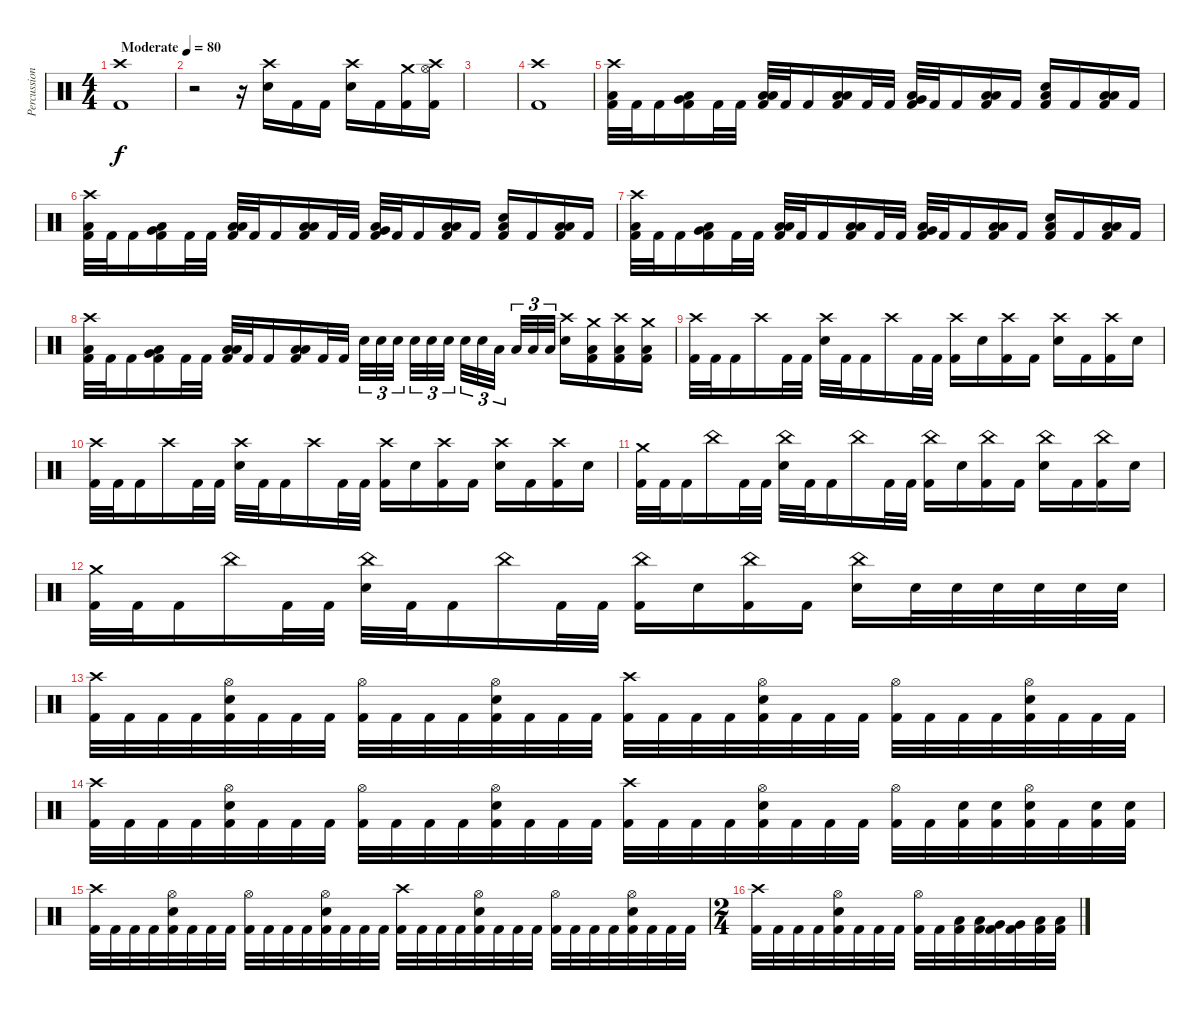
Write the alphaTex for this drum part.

\track ("Percussions" "Percussion") {instrument percussion}
\staff {score}
\articulation defaults
\ts (4 4)
\tempo (80 "Moderate")
\clef neutral
\ks c
("Crash high (hit)" "Kick (hit) 2").1{dy f} |
r.2 r.16 ("Crash high (hit)" "Electric Snare (hit)").16 "Kick (hit) 2".16 "Kick (hit) 2".16 ("Crash high (hit)" "Electric Snare (hit)").16 "Kick (hit) 2".16 ("Crash medium (hit)" "Kick (hit) 2").16 ("Hi-Hat (open)" "Crash high (hit)" "Kick (hit) 2").16 |
|
("Crash high (hit)" "Kick (hit) 2").1 |
("Crash high (hit)" "Low Tom (hit)" "Kick (hit) 2").32 "Kick (hit) 2".32 "Kick (hit) 2".16 ("Very Low Tom (hit)" "Low Floor Tom (hit)" "Kick (hit) 2").16 "Kick (hit) 2".32 "Kick (hit) 2".32 ("Low Floor Tom (hit)" "Low Floor Tom (hit)" "Kick (hit) 2").32 "Kick (hit) 2".32 "Kick (hit) 2".16 ("Low Tom (hit)" "Low Floor Tom (hit)" "Kick (hit) 2").16 "Kick (hit) 2".32 "Kick (hit) 2".32 ("Very Low Tom (hit)" "Low Floor Tom (hit)" "Kick (hit) 2").32 "Kick (hit) 2".32 "Kick (hit) 2".16 ("Low Floor Tom (hit)" "Low Floor Tom (hit)" "Kick (hit) 2").16 "Kick (hit) 2".16 ("Electric Snare (hit)" "Low Floor Tom (hit)" "Kick (hit) 2").16 "Kick (hit) 2".16 ("Low Floor Tom (hit)" "Low Floor Tom (hit)" "Kick (hit) 2").16 "Kick (hit) 2".16 |
("Crash high (hit)" "Low Tom (hit)" "Kick (hit) 2").32 "Kick (hit) 2".32 "Kick (hit) 2".16 ("Very Low Tom (hit)" "Low Floor Tom (hit)" "Kick (hit) 2").16 "Kick (hit) 2".32 "Kick (hit) 2".32 ("Low Floor Tom (hit)" "Low Floor Tom (hit)" "Kick (hit) 2").32 "Kick (hit) 2".32 "Kick (hit) 2".16 ("Low Tom (hit)" "Low Floor Tom (hit)" "Kick (hit) 2").16 "Kick (hit) 2".32 "Kick (hit) 2".32 ("Very Low Tom (hit)" "Low Floor Tom (hit)" "Kick (hit) 2").32 "Kick (hit) 2".32 "Kick (hit) 2".16 ("Low Floor Tom (hit)" "Low Floor Tom (hit)" "Kick (hit) 2").16 "Kick (hit) 2".16 ("Electric Snare (hit)" "Low Floor Tom (hit)" "Kick (hit) 2").16 "Kick (hit) 2".16 ("Low Floor Tom (hit)" "Low Floor Tom (hit)" "Kick (hit) 2").16 "Kick (hit) 2".16 |
("Crash high (hit)" "Low Tom (hit)" "Kick (hit) 2").32 "Kick (hit) 2".32 "Kick (hit) 2".16 ("Very Low Tom (hit)" "Low Floor Tom (hit)" "Kick (hit) 2").16 "Kick (hit) 2".32 "Kick (hit) 2".32 ("Low Floor Tom (hit)" "Low Floor Tom (hit)" "Kick (hit) 2").32 "Kick (hit) 2".32 "Kick (hit) 2".16 ("Low Tom (hit)" "Low Floor Tom (hit)" "Kick (hit) 2").16 "Kick (hit) 2".32 "Kick (hit) 2".32 ("Very Low Tom (hit)" "Low Floor Tom (hit)" "Kick (hit) 2").32 "Kick (hit) 2".32 "Kick (hit) 2".16 ("Low Floor Tom (hit)" "Low Floor Tom (hit)" "Kick (hit) 2").16 "Kick (hit) 2".16 ("Electric Snare (hit)" "Low Floor Tom (hit)" "Kick (hit) 2").16 "Kick (hit) 2".16 ("Low Floor Tom (hit)" "Low Floor Tom (hit)" "Kick (hit) 2").16 "Kick (hit) 2".16 |
("Crash high (hit)" "Low Tom (hit)" "Kick (hit) 2").32 "Kick (hit) 2".32 "Kick (hit) 2".16 ("Very Low Tom (hit)" "Low Floor Tom (hit)" "Kick (hit) 2").16 "Kick (hit) 2".32 "Kick (hit) 2".32 ("Low Floor Tom (hit)" "Low Floor Tom (hit)" "Kick (hit) 2").32 "Kick (hit) 2".32 "Kick (hit) 2".16 ("Low Tom (hit)" "Low Floor Tom (hit)" "Kick (hit) 2").16 "Kick (hit) 2".32 "Kick (hit) 2".32 "Electric Snare (hit)".32{tu (3 2)} "Electric Snare (hit)".32{tu (3 2)} "Electric Snare (hit)".32{tu (3 2) beam splitsecondary} "Electric Snare (hit)".32{tu (3 2)} "Electric Snare (hit)".32{tu (3 2)} "Electric Snare (hit)".32{tu (3 2) beam splitsecondary} "Electric Snare (hit)".32{tu (3 2)} "Electric Snare (hit)".32{tu (3 2)} "Low Tom (hit)".32{tu (3 2) beam splitsecondary} "Low Tom (hit)".32{tu (3 2)} "Low Tom (hit)".32{tu (3 2)} "Low Tom (hit)".32{tu (3 2)} ("Crash high (hit)" "Electric Snare (hit)").16 ("Crash medium (hit)" "Low Floor Tom (hit)" "Kick (hit) 2").16 ("Crash high (hit)" "Low Floor Tom (hit)" "Kick (hit) 2").16 ("Crash medium (hit)" "Low Floor Tom (hit)" "Kick (hit) 2").16 |
("Crash high (hit)" "Kick (hit) 2").32 "Kick (hit) 2".32 "Kick (hit) 2".16 "Crash high (hit)".16 "Kick (hit) 2".32 "Kick (hit) 2".32 ("Crash high (hit)" "Electric Snare (hit)").32 "Kick (hit) 2".32 "Kick (hit) 2".16 "Crash high (hit)".16 "Kick (hit) 2".32 "Kick (hit) 2".32 ("Crash high (hit)" "Kick (hit) 2").16 "Electric Snare (hit)".16 ("Crash high (hit)" "Kick (hit) 2").16 "Kick (hit) 2".16 ("Crash high (hit)" "Electric Snare (hit)").16 "Kick (hit) 2".16 ("Crash high (hit)" "Kick (hit) 2").16 "Electric Snare (hit)".16 |
("Crash high (hit)" "Kick (hit) 2").32 "Kick (hit) 2".32 "Kick (hit) 2".16 "Crash high (hit)".16 "Kick (hit) 2".32 "Kick (hit) 2".32 ("Crash high (hit)" "Electric Snare (hit)").32 "Kick (hit) 2".32 "Kick (hit) 2".16 "Crash high (hit)".16 "Kick (hit) 2".32 "Kick (hit) 2".32 ("Crash high (hit)" "Kick (hit) 2").16 "Electric Snare (hit)".16 ("Crash high (hit)" "Kick (hit) 2").16 "Kick (hit) 2".16 ("Crash high (hit)" "Electric Snare (hit)").16 "Kick (hit) 2".16 ("Crash high (hit)" "Kick (hit) 2").16 "Electric Snare (hit)".16 |
("Crash medium (hit)" "Kick (hit) 2").32 "Kick (hit) 2".32 "Kick (hit) 2".16 "China (hit)".16 "Kick (hit) 2".32 "Kick (hit) 2".32 ("China (hit)" "Electric Snare (hit)").32 "Kick (hit) 2".32 "Kick (hit) 2".16 "China (hit)".16 "Kick (hit) 2".32 "Kick (hit) 2".32 ("China (hit)" "Kick (hit) 2").16 "Electric Snare (hit)".16 ("China (hit)" "Kick (hit) 2").16 "Kick (hit) 2".16 ("China (hit)" "Electric Snare (hit)").16 "Kick (hit) 2".16 ("China (hit)" "Kick (hit) 2").16 "Electric Snare (hit)".16 |
("Crash medium (hit)" "Kick (hit) 2").32 "Kick (hit) 2".32 "Kick (hit) 2".16 "China (hit)".16 "Kick (hit) 2".32 "Kick (hit) 2".32 ("China (hit)" "Electric Snare (hit)").32 "Kick (hit) 2".32 "Kick (hit) 2".16 "China (hit)".16 "Kick (hit) 2".32 "Kick (hit) 2".32 ("China (hit)" "Kick (hit) 2").16 "Electric Snare (hit)".16 ("China (hit)" "Kick (hit) 2").16 "Kick (hit) 2".16 ("China (hit)" "Electric Snare (hit)").16 "Electric Snare (hit)".32 "Electric Snare (hit)".32 "Electric Snare (hit)".32 "Electric Snare (hit)".32 "Electric Snare (hit)".32 "Electric Snare (hit)".32 |
("Crash high (hit)" "Kick (hit) 2").32 "Kick (hit) 2".32 "Kick (hit) 2".32 "Kick (hit) 2".32 ("Hi-Hat (open)" "Electric Snare (hit)" "Kick (hit) 2").32 "Kick (hit) 2".32 "Kick (hit) 2".32 "Kick (hit) 2".32 ("Hi-Hat (open)" "Kick (hit) 2").32 "Kick (hit) 2".32 "Kick (hit) 2".32 "Kick (hit) 2".32 ("Hi-Hat (open)" "Electric Snare (hit)" "Kick (hit) 2").32 "Kick (hit) 2".32 "Kick (hit) 2".32 "Kick (hit) 2".32 ("Crash high (hit)" "Kick (hit) 2").32 "Kick (hit) 2".32 "Kick (hit) 2".32 "Kick (hit) 2".32 ("Hi-Hat (open)" "Electric Snare (hit)" "Kick (hit) 2").32 "Kick (hit) 2".32 "Kick (hit) 2".32 "Kick (hit) 2".32 ("Hi-Hat (open)" "Kick (hit) 2").32 "Kick (hit) 2".32 "Kick (hit) 2".32 "Kick (hit) 2".32 ("Hi-Hat (open)" "Electric Snare (hit)" "Kick (hit) 2").32 "Kick (hit) 2".32 "Kick (hit) 2".32 "Kick (hit) 2".32 |
("Crash high (hit)" "Kick (hit) 2").32 "Kick (hit) 2".32 "Kick (hit) 2".32 "Kick (hit) 2".32 ("Hi-Hat (open)" "Electric Snare (hit)" "Kick (hit) 2").32 "Kick (hit) 2".32 "Kick (hit) 2".32 "Kick (hit) 2".32 ("Hi-Hat (open)" "Kick (hit) 2").32 "Kick (hit) 2".32 "Kick (hit) 2".32 "Kick (hit) 2".32 ("Hi-Hat (open)" "Electric Snare (hit)" "Kick (hit) 2").32 "Kick (hit) 2".32 "Kick (hit) 2".32 "Kick (hit) 2".32 ("Crash high (hit)" "Kick (hit) 2").32 "Kick (hit) 2".32 "Kick (hit) 2".32 "Kick (hit) 2".32 ("Hi-Hat (open)" "Electric Snare (hit)" "Kick (hit) 2").32 "Kick (hit) 2".32 "Kick (hit) 2".32 "Kick (hit) 2".32 ("Hi-Hat (open)" "Kick (hit) 2").32 "Kick (hit) 2".32 ("Electric Snare (hit)" "Kick (hit) 2").32 ("Electric Snare (hit)" "Kick (hit) 2").32 ("Hi-Hat (open)" "Electric Snare (hit)" "Kick (hit) 2").32 "Kick (hit) 2".32 ("Electric Snare (hit)" "Kick (hit) 2").32 ("Electric Snare (hit)" "Kick (hit) 2").32 |
("Crash high (hit)" "Kick (hit) 2").32 "Kick (hit) 2".32 "Kick (hit) 2".32 "Kick (hit) 2".32 ("Hi-Hat (open)" "Electric Snare (hit)" "Kick (hit) 2").32 "Kick (hit) 2".32 "Kick (hit) 2".32 "Kick (hit) 2".32 ("Hi-Hat (open)" "Kick (hit) 2").32 "Kick (hit) 2".32 "Kick (hit) 2".32 "Kick (hit) 2".32 ("Hi-Hat (open)" "Electric Snare (hit)" "Kick (hit) 2").32 "Kick (hit) 2".32 "Kick (hit) 2".32 "Kick (hit) 2".32 ("Crash high (hit)" "Kick (hit) 2").32 "Kick (hit) 2".32 "Kick (hit) 2".32 "Kick (hit) 2".32 ("Hi-Hat (open)" "Electric Snare (hit)" "Kick (hit) 2").32 "Kick (hit) 2".32 "Kick (hit) 2".32 "Kick (hit) 2".32 ("Hi-Hat (open)" "Kick (hit) 2").32 "Kick (hit) 2".32 "Kick (hit) 2".32 "Kick (hit) 2".32 ("Hi-Hat (open)" "Electric Snare (hit)" "Kick (hit) 2").32 "Kick (hit) 2".32 "Kick (hit) 2".32 "Kick (hit) 2".32 |
\ts (2 4)
("Crash high (hit)" "Kick (hit) 2").32 "Kick (hit) 2".32 "Kick (hit) 2".32 "Kick (hit) 2".32 ("Hi-Hat (open)" "Electric Snare (hit)" "Kick (hit) 2").32 "Kick (hit) 2".32 "Kick (hit) 2".32 "Kick (hit) 2".32 ("Hi-Hat (open)" "Kick (hit) 2").32 "Kick (hit) 2".32 ("Low Tom (hit)" "Kick (hit) 2").32 ("Low Tom (hit)" "Kick (hit) 2").32 ("Very Low Tom (hit)" "Kick (hit) 2").32 ("Very Low Tom (hit)" "Kick (hit) 2").32 ("Low Floor Tom (hit)" "Kick (hit) 2").32 ("Low Floor Tom (hit)" "Kick (hit) 2").32
